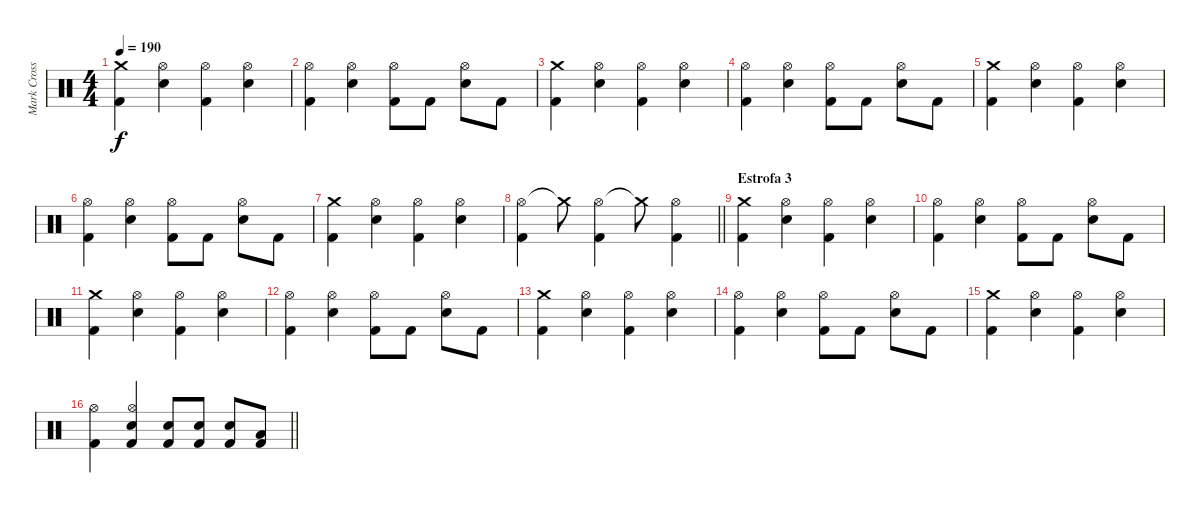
\track ("Mark Cross" "Mark Cross") {instrument percussion}
\staff {score}
\articulation defaults
\ts (4 4)
\tempo 190
\clef neutral
\ks c
("Crash medium (hit)" "Kick (hit) 2").4{dy f} ("Hi-Hat (open)" "Electric Snare (hit)").4 ("Hi-Hat (open)" "Kick (hit) 2").4 ("Hi-Hat (open)" "Electric Snare (hit)").4 |
("Hi-Hat (open)" "Kick (hit) 2").4 ("Hi-Hat (open)" "Electric Snare (hit)").4 ("Hi-Hat (open)" "Kick (hit) 2").8 "Kick (hit) 2".8 ("Hi-Hat (open)" "Electric Snare (hit)").8 "Kick (hit) 2".8 |
("Crash medium (hit)" "Kick (hit) 2").4 ("Hi-Hat (open)" "Electric Snare (hit)").4 ("Hi-Hat (open)" "Kick (hit) 2").4 ("Hi-Hat (open)" "Electric Snare (hit)").4 |
("Hi-Hat (open)" "Kick (hit) 2").4 ("Hi-Hat (open)" "Electric Snare (hit)").4 ("Hi-Hat (open)" "Kick (hit) 2").8 "Kick (hit) 2".8 ("Hi-Hat (open)" "Electric Snare (hit)").8 "Kick (hit) 2".8 |
("Crash medium (hit)" "Kick (hit) 2").4 ("Hi-Hat (open)" "Electric Snare (hit)").4 ("Hi-Hat (open)" "Kick (hit) 2").4 ("Hi-Hat (open)" "Electric Snare (hit)").4 |
("Hi-Hat (open)" "Kick (hit) 2").4 ("Hi-Hat (open)" "Electric Snare (hit)").4 ("Hi-Hat (open)" "Kick (hit) 2").8 "Kick (hit) 2".8 ("Hi-Hat (open)" "Electric Snare (hit)").8 "Kick (hit) 2".8 |
("Crash medium (hit)" "Kick (hit) 2").4 ("Hi-Hat (open)" "Electric Snare (hit)").4 ("Hi-Hat (open)" "Kick (hit) 2").4 ("Hi-Hat (open)" "Electric Snare (hit)").4 |
\barLineRight lightlight
("Hi-Hat (open)" "Kick (hit) 2").4 "Crash medium (hit)"{t}.8 ("Hi-Hat (open)" "Kick (hit) 2").4 "Crash medium (hit)"{t}.8 ("Hi-Hat (open)" "Kick (hit) 2").4 |
\section ("" "Estrofa 3")
("Crash medium (hit)" "Kick (hit) 2").4 ("Hi-Hat (open)" "Electric Snare (hit)").4 ("Hi-Hat (open)" "Kick (hit) 2").4 ("Hi-Hat (open)" "Electric Snare (hit)").4 |
("Hi-Hat (open)" "Kick (hit) 2").4 ("Hi-Hat (open)" "Electric Snare (hit)").4 ("Hi-Hat (open)" "Kick (hit) 2").8 "Kick (hit) 2".8 ("Hi-Hat (open)" "Electric Snare (hit)").8 "Kick (hit) 2".8 |
("Crash medium (hit)" "Kick (hit) 2").4 ("Hi-Hat (open)" "Electric Snare (hit)").4 ("Hi-Hat (open)" "Kick (hit) 2").4 ("Hi-Hat (open)" "Electric Snare (hit)").4 |
("Hi-Hat (open)" "Kick (hit) 2").4 ("Hi-Hat (open)" "Electric Snare (hit)").4 ("Hi-Hat (open)" "Kick (hit) 2").8 "Kick (hit) 2".8 ("Hi-Hat (open)" "Electric Snare (hit)").8 "Kick (hit) 2".8 |
("Crash medium (hit)" "Kick (hit) 2").4 ("Hi-Hat (open)" "Electric Snare (hit)").4 ("Hi-Hat (open)" "Kick (hit) 2").4 ("Hi-Hat (open)" "Electric Snare (hit)").4 |
("Hi-Hat (open)" "Kick (hit) 2").4 ("Hi-Hat (open)" "Electric Snare (hit)").4 ("Hi-Hat (open)" "Kick (hit) 2").8 "Kick (hit) 2".8 ("Hi-Hat (open)" "Electric Snare (hit)").8 "Kick (hit) 2".8 |
("Crash medium (hit)" "Kick (hit) 2").4 ("Hi-Hat (open)" "Electric Snare (hit)").4 ("Hi-Hat (open)" "Kick (hit) 2").4 ("Hi-Hat (open)" "Electric Snare (hit)").4 |
\barLineRight lightlight
("Hi-Hat (open)" "Kick (hit) 2").4 ("Hi-Hat (open)" "Electric Snare (hit)" "Kick (hit) 2").4 ("Electric Snare (hit)" "Kick (hit) 2").8 ("Electric Snare (hit)" "Kick (hit) 2").8 ("Electric Snare (hit)" "Kick (hit) 2").8 ("Low Floor Tom (hit)" "Kick (hit) 2").8
